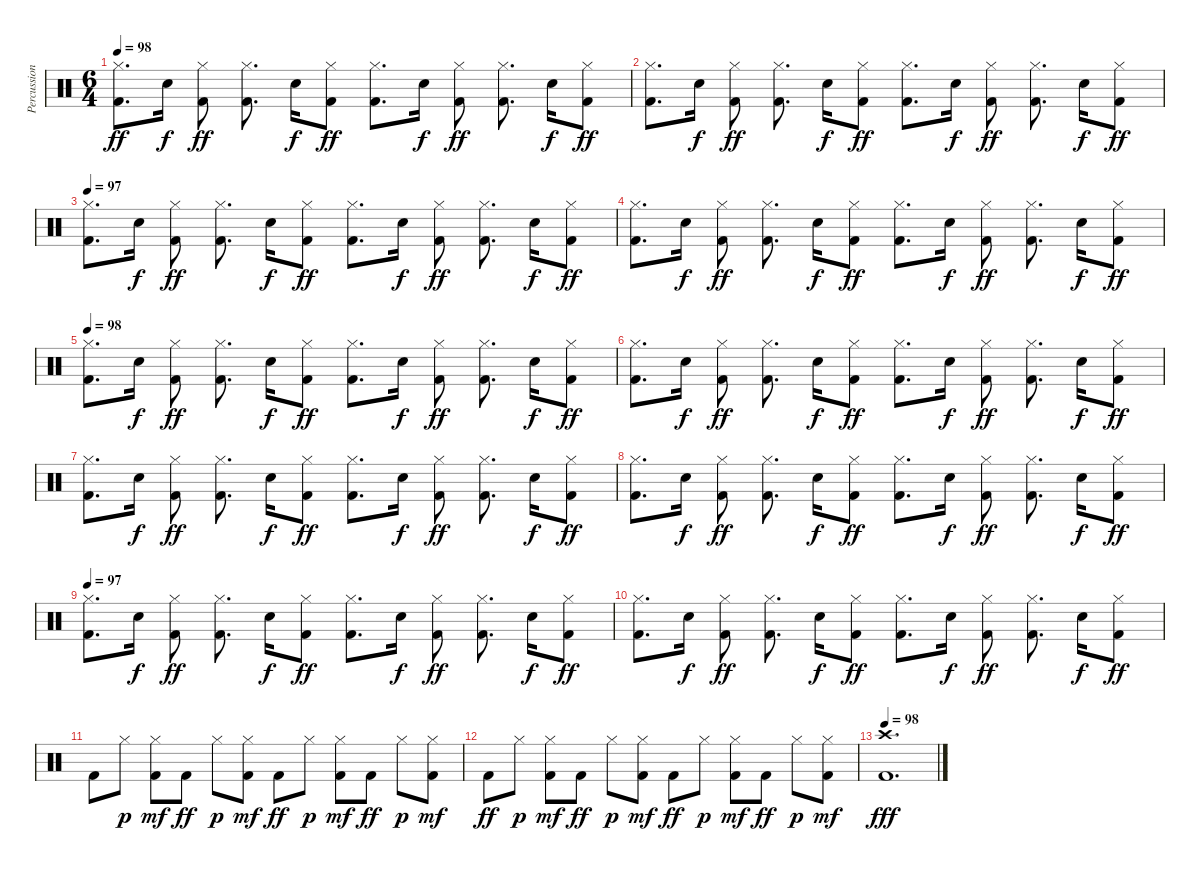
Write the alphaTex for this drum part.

\track ("Percussion" "Percussion") {instrument percussion}
\staff {score}
\articulation defaults
\ts (6 4)
\tempo 98
\clef neutral
\ks c
("Hi-Hat (closed)" "Kick (hit) 2").8{d dy ff} "Electric Snare (hit)".16{dy f} ("Hi-Hat (closed)" "Kick (hit) 2").8{dy ff beam split} ("Hi-Hat (closed)" "Kick (hit) 2").8{d} "Electric Snare (hit)".16{dy f} ("Hi-Hat (closed)" "Kick (hit) 2").8{dy ff} ("Hi-Hat (closed)" "Kick (hit) 2").8{d} "Electric Snare (hit)".16{dy f} ("Hi-Hat (closed)" "Kick (hit) 2").8{dy ff beam split} ("Hi-Hat (closed)" "Kick (hit) 2").8{d} "Electric Snare (hit)".16{dy f} ("Hi-Hat (closed)" "Kick (hit) 2").8{dy ff} |
("Hi-Hat (closed)" "Kick (hit) 2").8{d} "Electric Snare (hit)".16{dy f} ("Hi-Hat (closed)" "Kick (hit) 2").8{dy ff beam split} ("Hi-Hat (closed)" "Kick (hit) 2").8{d} "Electric Snare (hit)".16{dy f} ("Hi-Hat (closed)" "Kick (hit) 2").8{dy ff} ("Hi-Hat (closed)" "Kick (hit) 2").8{d} "Electric Snare (hit)".16{dy f} ("Hi-Hat (closed)" "Kick (hit) 2").8{dy ff beam split} ("Hi-Hat (closed)" "Kick (hit) 2").8{d} "Electric Snare (hit)".16{dy f} ("Hi-Hat (closed)" "Kick (hit) 2").8{dy ff} |
\tempo 97
("Hi-Hat (closed)" "Kick (hit) 2").8{d} "Electric Snare (hit)".16{dy f} ("Hi-Hat (closed)" "Kick (hit) 2").8{dy ff beam split} ("Hi-Hat (closed)" "Kick (hit) 2").8{d} "Electric Snare (hit)".16{dy f} ("Hi-Hat (closed)" "Kick (hit) 2").8{dy ff} ("Hi-Hat (closed)" "Kick (hit) 2").8{d} "Electric Snare (hit)".16{dy f} ("Hi-Hat (closed)" "Kick (hit) 2").8{dy ff beam split} ("Hi-Hat (closed)" "Kick (hit) 2").8{d} "Electric Snare (hit)".16{dy f} ("Hi-Hat (closed)" "Kick (hit) 2").8{dy ff} |
("Hi-Hat (closed)" "Kick (hit) 2").8{d} "Electric Snare (hit)".16{dy f} ("Hi-Hat (closed)" "Kick (hit) 2").8{dy ff beam split} ("Hi-Hat (closed)" "Kick (hit) 2").8{d} "Electric Snare (hit)".16{dy f} ("Hi-Hat (closed)" "Kick (hit) 2").8{dy ff} ("Hi-Hat (closed)" "Kick (hit) 2").8{d} "Electric Snare (hit)".16{dy f} ("Hi-Hat (closed)" "Kick (hit) 2").8{dy ff beam split} ("Hi-Hat (closed)" "Kick (hit) 2").8{d} "Electric Snare (hit)".16{dy f} ("Hi-Hat (closed)" "Kick (hit) 2").8{dy ff} |
\tempo 98
("Hi-Hat (closed)" "Kick (hit) 2").8{d} "Electric Snare (hit)".16{dy f} ("Hi-Hat (closed)" "Kick (hit) 2").8{dy ff beam split} ("Hi-Hat (closed)" "Kick (hit) 2").8{d} "Electric Snare (hit)".16{dy f} ("Hi-Hat (closed)" "Kick (hit) 2").8{dy ff} ("Hi-Hat (closed)" "Kick (hit) 2").8{d} "Electric Snare (hit)".16{dy f} ("Hi-Hat (closed)" "Kick (hit) 2").8{dy ff beam split} ("Hi-Hat (closed)" "Kick (hit) 2").8{d} "Electric Snare (hit)".16{dy f} ("Hi-Hat (closed)" "Kick (hit) 2").8{dy ff} |
("Hi-Hat (closed)" "Kick (hit) 2").8{d} "Electric Snare (hit)".16{dy f} ("Hi-Hat (closed)" "Kick (hit) 2").8{dy ff beam split} ("Hi-Hat (closed)" "Kick (hit) 2").8{d} "Electric Snare (hit)".16{dy f} ("Hi-Hat (closed)" "Kick (hit) 2").8{dy ff} ("Hi-Hat (closed)" "Kick (hit) 2").8{d} "Electric Snare (hit)".16{dy f} ("Hi-Hat (closed)" "Kick (hit) 2").8{dy ff beam split} ("Hi-Hat (closed)" "Kick (hit) 2").8{d} "Electric Snare (hit)".16{dy f} ("Hi-Hat (closed)" "Kick (hit) 2").8{dy ff} |
("Hi-Hat (closed)" "Kick (hit) 2").8{d} "Electric Snare (hit)".16{dy f} ("Hi-Hat (closed)" "Kick (hit) 2").8{dy ff beam split} ("Hi-Hat (closed)" "Kick (hit) 2").8{d} "Electric Snare (hit)".16{dy f} ("Hi-Hat (closed)" "Kick (hit) 2").8{dy ff} ("Hi-Hat (closed)" "Kick (hit) 2").8{d} "Electric Snare (hit)".16{dy f} ("Hi-Hat (closed)" "Kick (hit) 2").8{dy ff beam split} ("Hi-Hat (closed)" "Kick (hit) 2").8{d} "Electric Snare (hit)".16{dy f} ("Hi-Hat (closed)" "Kick (hit) 2").8{dy ff} |
("Hi-Hat (closed)" "Kick (hit) 2").8{d} "Electric Snare (hit)".16{dy f} ("Hi-Hat (closed)" "Kick (hit) 2").8{dy ff beam split} ("Hi-Hat (closed)" "Kick (hit) 2").8{d} "Electric Snare (hit)".16{dy f} ("Hi-Hat (closed)" "Kick (hit) 2").8{dy ff} ("Hi-Hat (closed)" "Kick (hit) 2").8{d} "Electric Snare (hit)".16{dy f} ("Hi-Hat (closed)" "Kick (hit) 2").8{dy ff beam split} ("Hi-Hat (closed)" "Kick (hit) 2").8{d} "Electric Snare (hit)".16{dy f} ("Hi-Hat (closed)" "Kick (hit) 2").8{dy ff} |
\tempo 97
("Hi-Hat (closed)" "Kick (hit) 2").8{d} "Electric Snare (hit)".16{dy f} ("Hi-Hat (closed)" "Kick (hit) 2").8{dy ff beam split} ("Hi-Hat (closed)" "Kick (hit) 2").8{d} "Electric Snare (hit)".16{dy f} ("Hi-Hat (closed)" "Kick (hit) 2").8{dy ff} ("Hi-Hat (closed)" "Kick (hit) 2").8{d} "Electric Snare (hit)".16{dy f} ("Hi-Hat (closed)" "Kick (hit) 2").8{dy ff beam split} ("Hi-Hat (closed)" "Kick (hit) 2").8{d} "Electric Snare (hit)".16{dy f} ("Hi-Hat (closed)" "Kick (hit) 2").8{dy ff} |
("Hi-Hat (closed)" "Kick (hit) 2").8{d} "Electric Snare (hit)".16{dy f} ("Hi-Hat (closed)" "Kick (hit) 2").8{dy ff beam split} ("Hi-Hat (closed)" "Kick (hit) 2").8{d} "Electric Snare (hit)".16{dy f} ("Hi-Hat (closed)" "Kick (hit) 2").8{dy ff} ("Hi-Hat (closed)" "Kick (hit) 2").8{d} "Electric Snare (hit)".16{dy f} ("Hi-Hat (closed)" "Kick (hit) 2").8{dy ff beam split} ("Hi-Hat (closed)" "Kick (hit) 2").8{d} "Electric Snare (hit)".16{dy f} ("Hi-Hat (closed)" "Kick (hit) 2").8{dy ff} |
"Kick (hit) 2".8 "Hi-Hat (closed)".8{dy p} ("Hi-Hat (closed)" "Kick (hit) 2").8{dy mf} "Kick (hit) 2".8{dy ff} "Hi-Hat (closed)".8{dy p} ("Hi-Hat (closed)" "Kick (hit) 2").8{dy mf} "Kick (hit) 2".8{dy ff} "Hi-Hat (closed)".8{dy p} ("Hi-Hat (closed)" "Kick (hit) 2").8{dy mf} "Kick (hit) 2".8{dy ff} "Hi-Hat (closed)".8{dy p} ("Hi-Hat (closed)" "Kick (hit) 2").8{dy mf} |
"Kick (hit) 2".8{dy ff} "Hi-Hat (closed)".8{dy p} ("Hi-Hat (closed)" "Kick (hit) 2").8{dy mf} "Kick (hit) 2".8{dy ff} "Hi-Hat (closed)".8{dy p} ("Hi-Hat (closed)" "Kick (hit) 2").8{dy mf} "Kick (hit) 2".8{dy ff} "Hi-Hat (closed)".8{dy p} ("Hi-Hat (closed)" "Kick (hit) 2").8{dy mf} "Kick (hit) 2".8{dy ff} "Hi-Hat (closed)".8{dy p} ("Hi-Hat (closed)" "Kick (hit) 2").8{dy mf} |
\tempo 98
("Crash high (hit)" "Kick (hit) 2").1{d dy fff}
